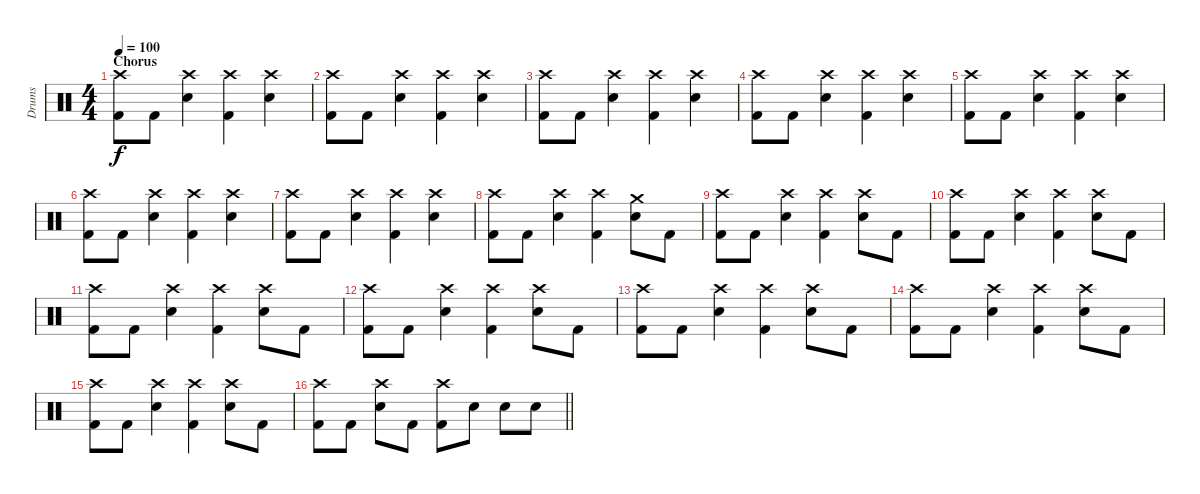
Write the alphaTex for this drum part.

\track ("Drums" "Drums") {instrument percussion}
\staff {score}
\articulation defaults
\ts (4 4)
\section ("" "Chorus")
\tempo 100
\clef neutral
\ks c
("Crash high (hit)" "Kick (hit) 2").8{dy f} "Kick (hit) 2".8 ("Snare (hit) 2" "Crash high (hit)").4 ("Kick (hit) 2" "Crash high (hit)").4 ("Snare (hit) 2" "Crash high (hit)").4 |
("Crash high (hit)" "Kick (hit) 2").8 "Kick (hit) 2".8 ("Snare (hit) 2" "Crash high (hit)").4 ("Kick (hit) 2" "Crash high (hit)").4 ("Snare (hit) 2" "Crash high (hit)").4 |
("Crash high (hit)" "Kick (hit) 2").8 "Kick (hit) 2".8 ("Snare (hit) 2" "Crash high (hit)").4 ("Kick (hit) 2" "Crash high (hit)").4 ("Snare (hit) 2" "Crash high (hit)").4 |
("Crash high (hit)" "Kick (hit) 2").8 "Kick (hit) 2".8 ("Snare (hit) 2" "Crash high (hit)").4 ("Kick (hit) 2" "Crash high (hit)").4 ("Snare (hit) 2" "Crash high (hit)").4 |
("Crash high (hit)" "Kick (hit) 2").8 "Kick (hit) 2".8 ("Snare (hit) 2" "Crash high (hit)").4 ("Kick (hit) 2" "Crash high (hit)").4 ("Snare (hit) 2" "Crash high (hit)").4 |
("Crash high (hit)" "Kick (hit) 2").8 "Kick (hit) 2".8 ("Snare (hit) 2" "Crash high (hit)").4 ("Kick (hit) 2" "Crash high (hit)").4 ("Snare (hit) 2" "Crash high (hit)").4 |
("Crash high (hit)" "Kick (hit) 2").8 "Kick (hit) 2".8 ("Snare (hit) 2" "Crash high (hit)").4 ("Kick (hit) 2" "Crash high (hit)").4 ("Snare (hit) 2" "Crash high (hit)").4 |
("Crash high (hit)" "Kick (hit) 2").8 "Kick (hit) 2".8 ("Snare (hit) 2" "Crash high (hit)").4 ("Kick (hit) 2" "Crash high (hit)").4 ("Snare (hit) 2" "Crash medium (hit)").8 "Kick (hit) 2".8 |
("Crash high (hit)" "Kick (hit) 2").8 "Kick (hit) 2".8 ("Snare (hit) 2" "Crash high (hit)").4 ("Kick (hit) 2" "Crash high (hit)").4 ("Snare (hit) 2" "Crash high (hit)").8 "Kick (hit) 2".8 |
("Crash high (hit)" "Kick (hit) 2").8 "Kick (hit) 2".8 ("Snare (hit) 2" "Crash high (hit)").4 ("Kick (hit) 2" "Crash high (hit)").4 ("Snare (hit) 2" "Crash high (hit)").8 "Kick (hit) 2".8 |
("Crash high (hit)" "Kick (hit) 2").8 "Kick (hit) 2".8 ("Snare (hit) 2" "Crash high (hit)").4 ("Kick (hit) 2" "Crash high (hit)").4 ("Snare (hit) 2" "Crash high (hit)").8 "Kick (hit) 2".8 |
("Crash high (hit)" "Kick (hit) 2").8 "Kick (hit) 2".8 ("Snare (hit) 2" "Crash high (hit)").4 ("Kick (hit) 2" "Crash high (hit)").4 ("Snare (hit) 2" "Crash high (hit)").8 "Kick (hit) 2".8 |
("Crash high (hit)" "Kick (hit) 2").8 "Kick (hit) 2".8 ("Snare (hit) 2" "Crash high (hit)").4 ("Kick (hit) 2" "Crash high (hit)").4 ("Snare (hit) 2" "Crash high (hit)").8 "Kick (hit) 2".8 |
("Crash high (hit)" "Kick (hit) 2").8 "Kick (hit) 2".8 ("Snare (hit) 2" "Crash high (hit)").4 ("Kick (hit) 2" "Crash high (hit)").4 ("Snare (hit) 2" "Crash high (hit)").8 "Kick (hit) 2".8 |
("Crash high (hit)" "Kick (hit) 2").8 "Kick (hit) 2".8 ("Snare (hit) 2" "Crash high (hit)").4 ("Kick (hit) 2" "Crash high (hit)").4 ("Snare (hit) 2" "Crash high (hit)").8 "Kick (hit) 2".8 |
\barLineRight lightlight
("Crash high (hit)" "Kick (hit) 2").8 "Kick (hit) 2".8 ("Snare (hit) 2" "Crash high (hit)").8 "Kick (hit) 2".8 ("Kick (hit) 2" "Crash high (hit)").8 "Snare (hit) 2".8 "Snare (hit) 2".8 "Snare (hit) 2".8
